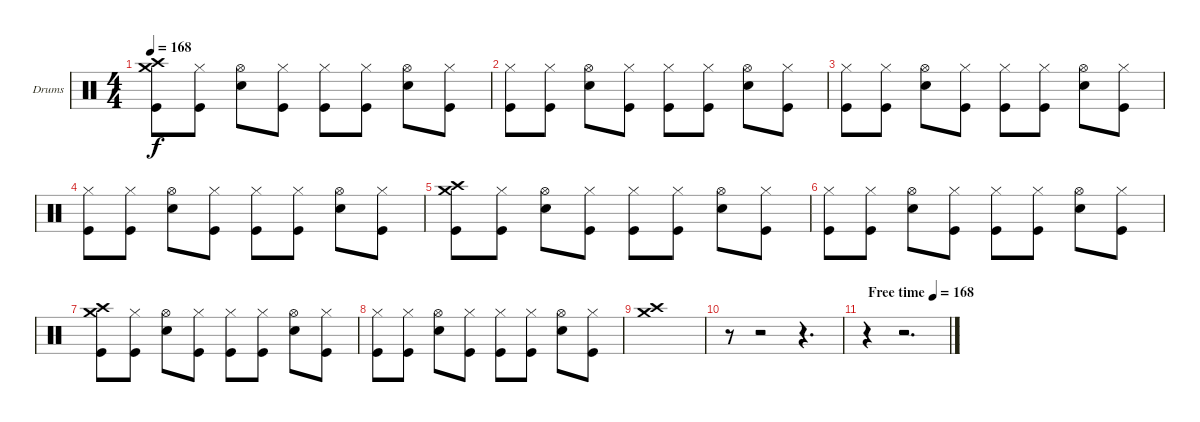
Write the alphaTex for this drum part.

\bracketExtendMode groupsimilarinstruments
\firstSystemTrackNameOrientation horizontal
\otherSystemsTrackNameOrientation horizontal
\track ("Drumkit" "Drums") {instrument percussion}
\staff {score}
\articulation defaults
\ts (4 4)
\tempo 168
\clef neutral
\scale
0.973518
\ks c
("Crash high (hit)" "Crash medium (hit)" "Kick (hit)").8{dy f} ("Hi-Hat (closed)" "Kick (hit)").8 ("Hi-Hat (open)" "Snare (hit) 2").8 ("Hi-Hat (closed)" "Kick (hit)").8 ("Hi-Hat (closed)" "Kick (hit)").8 ("Hi-Hat (closed)" "Kick (hit)").8 ("Hi-Hat (open)" "Snare (hit) 2").8 ("Hi-Hat (closed)" "Kick (hit)").8 |
\scale
1.05296 ("Hi-Hat (closed)" "Kick (hit)").8 ("Hi-Hat (closed)" "Kick (hit)").8 ("Hi-Hat (open)" "Snare (hit) 2").8 ("Hi-Hat (closed)" "Kick (hit)").8 ("Hi-Hat (closed)" "Kick (hit)").8 ("Hi-Hat (closed)" "Kick (hit)").8 ("Hi-Hat (open)" "Snare (hit) 2").8 ("Hi-Hat (closed)" "Kick (hit)").8 |
\scale
0.973518 ("Hi-Hat (closed)" "Kick (hit)").8 ("Hi-Hat (closed)" "Kick (hit)").8 ("Hi-Hat (open)" "Snare (hit) 2").8 ("Hi-Hat (closed)" "Kick (hit)").8 ("Hi-Hat (closed)" "Kick (hit)").8 ("Hi-Hat (closed)" "Kick (hit)").8 ("Hi-Hat (open)" "Snare (hit) 2").8 ("Hi-Hat (closed)" "Kick (hit)").8 |
\scale
0.973518 ("Hi-Hat (closed)" "Kick (hit)").8 ("Hi-Hat (closed)" "Kick (hit)").8 ("Hi-Hat (open)" "Snare (hit) 2").8 ("Hi-Hat (closed)" "Kick (hit)").8 ("Hi-Hat (closed)" "Kick (hit)").8 ("Hi-Hat (closed)" "Kick (hit)").8 ("Hi-Hat (open)" "Snare (hit) 2").8 ("Hi-Hat (closed)" "Kick (hit)").8 |
\scale
1.05296 ("Crash high (hit)" "Crash medium (hit)" "Kick (hit)").8 ("Hi-Hat (closed)" "Kick (hit)").8 ("Hi-Hat (open)" "Snare (hit) 2").8 ("Hi-Hat (closed)" "Kick (hit)").8 ("Hi-Hat (closed)" "Kick (hit)").8 ("Hi-Hat (closed)" "Kick (hit)").8 ("Hi-Hat (open)" "Snare (hit) 2").8 ("Hi-Hat (closed)" "Kick (hit)").8 |
\scale
0.973518 ("Hi-Hat (closed)" "Kick (hit)").8 ("Hi-Hat (closed)" "Kick (hit)").8 ("Hi-Hat (open)" "Snare (hit) 2").8 ("Hi-Hat (closed)" "Kick (hit)").8 ("Hi-Hat (closed)" "Kick (hit)").8 ("Hi-Hat (closed)" "Kick (hit)").8 ("Hi-Hat (open)" "Snare (hit) 2").8 ("Hi-Hat (closed)" "Kick (hit)").8 |
\scale
0.973518 ("Crash high (hit)" "Crash medium (hit)" "Kick (hit)").8 ("Hi-Hat (closed)" "Kick (hit)").8 ("Hi-Hat (open)" "Snare (hit) 2").8 ("Hi-Hat (closed)" "Kick (hit)").8 ("Hi-Hat (closed)" "Kick (hit)").8 ("Hi-Hat (closed)" "Kick (hit)").8 ("Hi-Hat (open)" "Snare (hit) 2").8 ("Hi-Hat (closed)" "Kick (hit)").8 |
\scale
1.05296 ("Hi-Hat (closed)" "Kick (hit)").8 ("Hi-Hat (closed)" "Kick (hit)").8 ("Hi-Hat (open)" "Snare (hit) 2").8 ("Hi-Hat (closed)" "Kick (hit)").8 ("Hi-Hat (closed)" "Kick (hit)").8 ("Hi-Hat (closed)" "Kick (hit)").8 ("Hi-Hat (open)" "Snare (hit) 2").8 ("Hi-Hat (closed)" "Kick (hit)").8 |
\scale
0.973518 ("Crash medium (hit)" "Crash high (hit)").1 |
\scale
0.973518 r.8 r.2 r.4{d} |
\tempo (168 "Free time" 0.00625)
r.4 r.2{d}
